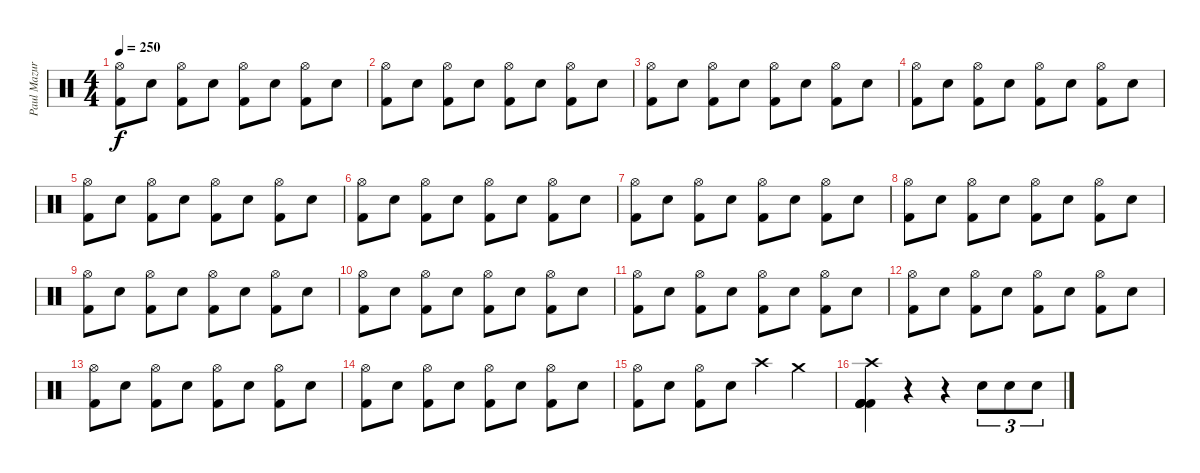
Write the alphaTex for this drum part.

\track ("Paul Mazurkiewicz" "Paul Mazur") {instrument percussion}
\staff {score}
\articulation defaults
\ts (4 4)
\tempo 250
\clef neutral
\ks c
("Hi-Hat (open)" "Kick (hit) 2").8{dy f} "Snare (hit) 2".8 ("Hi-Hat (open)" "Kick (hit) 2").8 "Snare (hit) 2".8 ("Hi-Hat (open)" "Kick (hit) 2").8 "Snare (hit) 2".8 ("Hi-Hat (open)" "Kick (hit) 2").8 "Snare (hit) 2".8 |
("Hi-Hat (open)" "Kick (hit) 2").8 "Snare (hit) 2".8 ("Hi-Hat (open)" "Kick (hit) 2").8 "Snare (hit) 2".8 ("Hi-Hat (open)" "Kick (hit) 2").8 "Snare (hit) 2".8 ("Hi-Hat (open)" "Kick (hit) 2").8 "Snare (hit) 2".8 |
("Hi-Hat (open)" "Kick (hit) 2").8 "Snare (hit) 2".8 ("Hi-Hat (open)" "Kick (hit) 2").8 "Snare (hit) 2".8 ("Hi-Hat (open)" "Kick (hit) 2").8 "Snare (hit) 2".8 ("Hi-Hat (open)" "Kick (hit) 2").8 "Snare (hit) 2".8 |
("Hi-Hat (open)" "Kick (hit) 2").8 "Snare (hit) 2".8 ("Hi-Hat (open)" "Kick (hit) 2").8 "Snare (hit) 2".8 ("Hi-Hat (open)" "Kick (hit) 2").8 "Snare (hit) 2".8 ("Hi-Hat (open)" "Kick (hit) 2").8 "Snare (hit) 2".8 |
("Hi-Hat (open)" "Kick (hit) 2").8 "Snare (hit) 2".8 ("Hi-Hat (open)" "Kick (hit) 2").8 "Snare (hit) 2".8 ("Hi-Hat (open)" "Kick (hit) 2").8 "Snare (hit) 2".8 ("Hi-Hat (open)" "Kick (hit) 2").8 "Snare (hit) 2".8 |
("Hi-Hat (open)" "Kick (hit) 2").8 "Snare (hit) 2".8 ("Hi-Hat (open)" "Kick (hit) 2").8 "Snare (hit) 2".8 ("Hi-Hat (open)" "Kick (hit) 2").8 "Snare (hit) 2".8 ("Hi-Hat (open)" "Kick (hit) 2").8 "Snare (hit) 2".8 |
("Hi-Hat (open)" "Kick (hit) 2").8 "Snare (hit) 2".8 ("Hi-Hat (open)" "Kick (hit) 2").8 "Snare (hit) 2".8 ("Hi-Hat (open)" "Kick (hit) 2").8 "Snare (hit) 2".8 ("Hi-Hat (open)" "Kick (hit) 2").8 "Snare (hit) 2".8 |
("Hi-Hat (open)" "Kick (hit) 2").8 "Snare (hit) 2".8 ("Hi-Hat (open)" "Kick (hit) 2").8 "Snare (hit) 2".8 ("Hi-Hat (open)" "Kick (hit) 2").8 "Snare (hit) 2".8 ("Hi-Hat (open)" "Kick (hit) 2").8 "Snare (hit) 2".8 |
("Hi-Hat (open)" "Kick (hit) 2").8 "Snare (hit) 2".8 ("Hi-Hat (open)" "Kick (hit) 2").8 "Snare (hit) 2".8 ("Hi-Hat (open)" "Kick (hit) 2").8 "Snare (hit) 2".8 ("Hi-Hat (open)" "Kick (hit) 2").8 "Snare (hit) 2".8 |
("Hi-Hat (open)" "Kick (hit) 2").8 "Snare (hit) 2".8 ("Hi-Hat (open)" "Kick (hit) 2").8 "Snare (hit) 2".8 ("Hi-Hat (open)" "Kick (hit) 2").8 "Snare (hit) 2".8 ("Hi-Hat (open)" "Kick (hit) 2").8 "Snare (hit) 2".8 |
("Hi-Hat (open)" "Kick (hit) 2").8 "Snare (hit) 2".8 ("Hi-Hat (open)" "Kick (hit) 2").8 "Snare (hit) 2".8 ("Hi-Hat (open)" "Kick (hit) 2").8 "Snare (hit) 2".8 ("Hi-Hat (open)" "Kick (hit) 2").8 "Snare (hit) 2".8 |
("Hi-Hat (open)" "Kick (hit) 2").8 "Snare (hit) 2".8 ("Hi-Hat (open)" "Kick (hit) 2").8 "Snare (hit) 2".8 ("Hi-Hat (open)" "Kick (hit) 2").8 "Snare (hit) 2".8 ("Hi-Hat (open)" "Kick (hit) 2").8 "Snare (hit) 2".8 |
("Hi-Hat (open)" "Kick (hit) 2").8 "Snare (hit) 2".8 ("Hi-Hat (open)" "Kick (hit) 2").8 "Snare (hit) 2".8 ("Hi-Hat (open)" "Kick (hit) 2").8 "Snare (hit) 2".8 ("Hi-Hat (open)" "Kick (hit) 2").8 "Snare (hit) 2".8 |
("Hi-Hat (open)" "Kick (hit) 2").8 "Snare (hit) 2".8 ("Hi-Hat (open)" "Kick (hit) 2").8 "Snare (hit) 2".8 ("Hi-Hat (open)" "Kick (hit) 2").8 "Snare (hit) 2".8 ("Hi-Hat (open)" "Kick (hit) 2").8 "Snare (hit) 2".8 |
("Hi-Hat (open)" "Kick (hit) 2").8 "Snare (hit) 2".8 ("Hi-Hat (open)" "Kick (hit) 2").8 "Snare (hit) 2".8 "Crash high (hit)".4 "Crash medium (hit)".4 |
("Kick (hit) 2" "Kick (hit) 2" "Kick (hit) 2" "Kick (hit) 2" "Crash high (hit)").4 r.4 r.4 "Snare (hit) 2".8{tu (3 2)} "Snare (hit) 2".8{tu (3 2)} "Snare (hit) 2".8{tu (3 2)}
